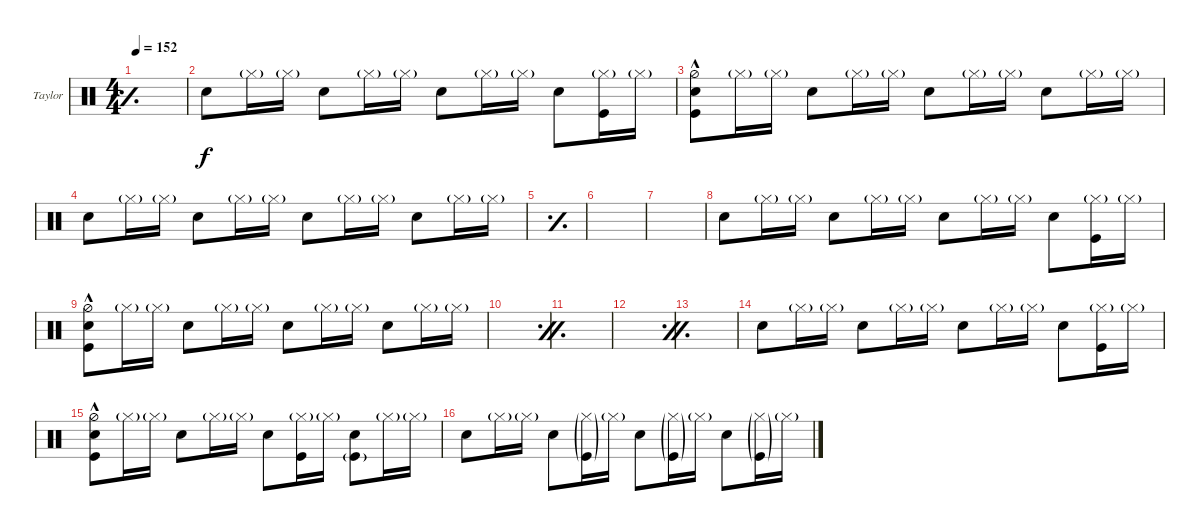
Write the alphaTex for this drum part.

\defaultSystemsLayout 4
\bracketExtendMode nobrackets
\firstSystemTrackNameOrientation horizontal
\otherSystemsTrackNameOrientation horizontal
\track ("Drums (Taylor Hawkins)" "Taylor") {instrument percussion}
\staff {score}
\articulation defaults
\ts (4 4)
\tempo 152
\clef neutral
\simile simple
\ks c
|
\simile none "Snare (hit) 2".8 "Hi-Hat (closed)"{g}.16 "Hi-Hat (closed)"{g}.16 "Snare (hit) 2".8 "Hi-Hat (closed)"{g}.16 "Hi-Hat (closed)"{g}.16 "Snare (hit) 2".8 "Hi-Hat (closed)"{g}.16 "Hi-Hat (closed)"{g}.16 "Snare (hit) 2".8
("Hi-Hat (closed)"{g} "Kick (hit)").16 "Hi-Hat (closed)"{g}.16 |
("Snare (hit) 2" "Hi-Hat (half)"{hac} "Kick (hit)").8 "Hi-Hat (closed)"{g}.16 "Hi-Hat (closed)"{g}.16 "Snare (hit) 2".8 "Hi-Hat (closed)"{g}.16 "Hi-Hat (closed)"{g}.16 "Snare (hit) 2".8 "Hi-Hat (closed)"{g}.16 "Hi-Hat (closed)"{g}.16 "Snare (hit) 2".8 "Hi-Hat (closed)"{g}.16 "Hi-Hat (closed)"{g}.16 |
"Snare (hit) 2".8 "Hi-Hat (closed)"{g}.16 "Hi-Hat (closed)"{g}.16 "Snare (hit) 2".8 "Hi-Hat (closed)"{g}.16 "Hi-Hat (closed)"{g}.16 "Snare (hit) 2".8 "Hi-Hat (closed)"{g}.16 "Hi-Hat (closed)"{g}.16 "Snare (hit) 2".8 "Hi-Hat (closed)"{g}.16 "Hi-Hat (closed)"{g}.16 |
\simile simple
|
|
|
\simile none "Snare (hit) 2".8 "Hi-Hat (closed)"{g}.16 "Hi-Hat (closed)"{g}.16 "Snare (hit) 2".8 "Hi-Hat (closed)"{g}.16 "Hi-Hat (closed)"{g}.16 "Snare (hit) 2".8 "Hi-Hat (closed)"{g}.16 "Hi-Hat (closed)"{g}.16 "Snare (hit) 2".8
("Hi-Hat (closed)"{g} "Kick (hit)").16 "Hi-Hat (closed)"{g}.16 |
("Snare (hit) 2" "Hi-Hat (half)"{hac} "Kick (hit)").8 "Hi-Hat (closed)"{g}.16 "Hi-Hat (closed)"{g}.16 "Snare (hit) 2".8 "Hi-Hat (closed)"{g}.16 "Hi-Hat (closed)"{g}.16 "Snare (hit) 2".8 "Hi-Hat (closed)"{g}.16 "Hi-Hat (closed)"{g}.16 "Snare (hit) 2".8 "Hi-Hat (closed)"{g}.16 "Hi-Hat (closed)"{g}.16 |
\simile firstofdouble
|
\simile secondofdouble
|
\simile firstofdouble
|
\simile secondofdouble
|
\simile none "Snare (hit) 2".8 "Hi-Hat (closed)"{g}.16 "Hi-Hat (closed)"{g}.16 "Snare (hit) 2".8 "Hi-Hat (closed)"{g}.16 "Hi-Hat (closed)"{g}.16 "Snare (hit) 2".8 "Hi-Hat (closed)"{g}.16 "Hi-Hat (closed)"{g}.16 "Snare (hit) 2".8
("Hi-Hat (closed)"{g} "Kick (hit)").16 "Hi-Hat (closed)"{g}.16 |
("Snare (hit) 2" "Hi-Hat (half)"{hac} "Kick (hit)").8 "Hi-Hat (closed)"{g}.16 "Hi-Hat (closed)"{g}.16 "Snare (hit) 2".8 "Hi-Hat (closed)"{g}.16 "Hi-Hat (closed)"{g}.16 "Snare (hit) 2".8 ("Hi-Hat (closed)"{g} "Kick (hit)").16 "Hi-Hat (closed)"{g}.16 ("Snare (hit) 2" "Kick (hit)"{g}).8 "Hi-Hat (closed)"{g}.16 "Hi-Hat (closed)"{g}.16 |
"Snare (hit) 2".8 "Hi-Hat (closed)"{g}.16 "Hi-Hat (closed)"{g}.16 "Snare (hit) 2".8 ("Hi-Hat (closed)"{g} "Kick (hit)"{g}).16 "Hi-Hat (closed)"{g}.16 "Snare (hit) 2".8 ("Hi-Hat (closed)"{g} "Kick (hit)"{g}).16 "Hi-Hat (closed)"{g}.16 "Snare (hit) 2".8 ("Hi-Hat (closed)"{g} "Kick (hit)"{g}).16 "Hi-Hat (closed)"{g}.16
